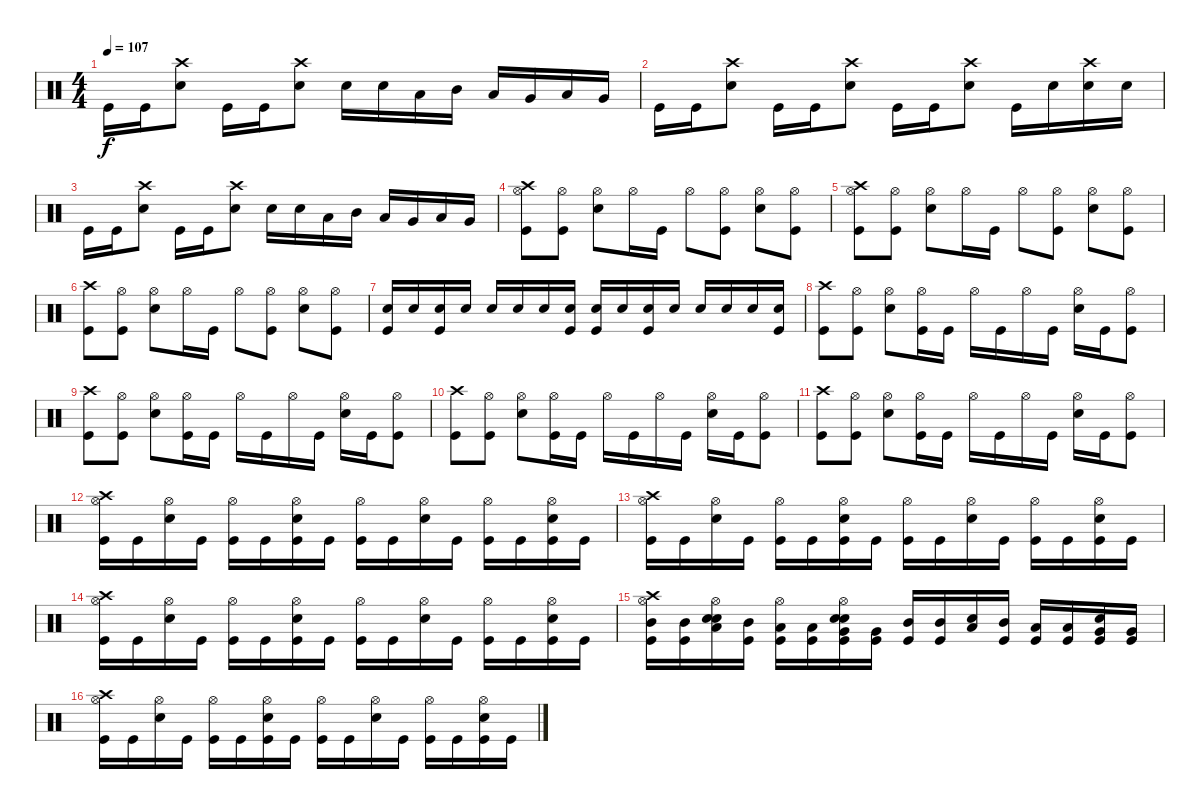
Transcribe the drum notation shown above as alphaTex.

\track "" {instrument percussion}
\staff {score}
\articulation defaults
\ts (4 4)
\tempo 107
\clef neutral
\ks c "Kick (hit)".16{dy f} "Kick (hit)".16
("Crash high (hit)" "Snare (hit) 2").8 "Kick (hit)".16 "Kick (hit)".16 ("Crash high (hit)" "Snare (hit) 2").8 "Snare (hit) 2".16 "Snare (hit) 2".16 "Low Tom (hit)".16 "Mid Tom (hit)".16 "Low Tom (hit)".16 "Very Low Tom (hit)".16 "Low Tom (hit)".16 "Very Low Tom (hit)".16 |
"Kick (hit)".16 "Kick (hit)".16 ("Crash high (hit)" "Snare (hit) 2").8 "Kick (hit)".16 "Kick (hit)".16 ("Crash high (hit)" "Snare (hit) 2").8 "Kick (hit)".16 "Kick (hit)".16 ("Crash high (hit)" "Snare (hit) 2").8 "Kick (hit)".16 "Snare (hit) 2".16 ("Crash high (hit)" "Snare (hit) 2").16 "Snare (hit) 2".16 |
"Kick (hit)".16 "Kick (hit)".16 ("Crash high (hit)" "Snare (hit) 2").8 "Kick (hit)".16 "Kick (hit)".16 ("Crash high (hit)" "Snare (hit) 2").8 "Snare (hit) 2".16 "Snare (hit) 2".16 "Low Tom (hit)".16 "Mid Tom (hit)".16 "Low Tom (hit)".16 "Very Low Tom (hit)".16 "Low Tom (hit)".16 "Very Low Tom (hit)".16 |
("Crash high (hit)" "Hi-Hat (open)" "Kick (hit)").8 ("Kick (hit)" "Hi-Hat (open)").8 ("Snare (hit) 2" "Hi-Hat (open)").8 "Hi-Hat (open)".16 "Kick (hit)".16 "Hi-Hat (open)".8 ("Kick (hit)" "Hi-Hat (open)").8 ("Snare (hit) 2" "Hi-Hat (open)").8 ("Kick (hit)" "Hi-Hat (open)").8 |
("Crash high (hit)" "Hi-Hat (open)" "Kick (hit)").8 ("Kick (hit)" "Hi-Hat (open)").8 ("Snare (hit) 2" "Hi-Hat (open)").8 "Hi-Hat (open)".16 "Kick (hit)".16 "Hi-Hat (open)".8 ("Kick (hit)" "Hi-Hat (open)").8 ("Snare (hit) 2" "Hi-Hat (open)").8 ("Kick (hit)" "Hi-Hat (open)").8 |
("Crash high (hit)" "Kick (hit)").8 ("Kick (hit)" "Hi-Hat (open)").8 ("Snare (hit) 2" "Hi-Hat (open)").8 "Hi-Hat (open)".16 "Kick (hit)".16 "Hi-Hat (open)".8 ("Kick (hit)" "Hi-Hat (open)").8 ("Snare (hit) 2" "Hi-Hat (open)").8 ("Kick (hit)" "Hi-Hat (open)").8 |
("Snare (hit) 2" "Kick (hit)").16 "Snare (hit) 2".16 ("Snare (hit) 2" "Kick (hit)").16 "Snare (hit) 2".16 "Snare (hit) 2".16 "Snare (hit) 2".16 "Snare (hit) 2".16 ("Snare (hit) 2" "Kick (hit)").16 ("Snare (hit) 2" "Kick (hit)").16 "Snare (hit) 2".16 ("Snare (hit) 2" "Kick (hit)").16 "Snare (hit) 2".16 "Snare (hit) 2".16 "Snare (hit) 2".16 "Snare (hit) 2".16 ("Snare (hit) 2" "Kick (hit)").16 |
("Crash high (hit)" "Kick (hit)").8 ("Kick (hit)" "Hi-Hat (open)").8 ("Snare (hit) 2" "Hi-Hat (open)").8 ("Kick (hit)" "Hi-Hat (open)").16 "Kick (hit)".16 "Hi-Hat (open)".16 "Kick (hit)".16 "Hi-Hat (open)".16 "Kick (hit)".16 ("Snare (hit) 2" "Hi-Hat (open)").16 "Kick (hit)".16 ("Kick (hit)" "Hi-Hat (open)").8 |
("Crash high (hit)" "Kick (hit)").8 ("Kick (hit)" "Hi-Hat (open)").8 ("Snare (hit) 2" "Hi-Hat (open)").8 ("Kick (hit)" "Hi-Hat (open)").16 "Kick (hit)".16 "Hi-Hat (open)".16 "Kick (hit)".16 "Hi-Hat (open)".16 "Kick (hit)".16 ("Snare (hit) 2" "Hi-Hat (open)").16 "Kick (hit)".16 ("Kick (hit)" "Hi-Hat (open)").8 |
("Crash high (hit)" "Kick (hit)").8 ("Kick (hit)" "Hi-Hat (open)").8 ("Snare (hit) 2" "Hi-Hat (open)").8 ("Kick (hit)" "Hi-Hat (open)").16 "Kick (hit)".16 "Hi-Hat (open)".16 "Kick (hit)".16 "Hi-Hat (open)".16 "Kick (hit)".16 ("Snare (hit) 2" "Hi-Hat (open)").16 "Kick (hit)".16 ("Kick (hit)" "Hi-Hat (open)").8 |
("Crash high (hit)" "Kick (hit)").8 ("Kick (hit)" "Hi-Hat (open)").8 ("Snare (hit) 2" "Hi-Hat (open)").8 ("Kick (hit)" "Hi-Hat (open)").16 "Kick (hit)".16 "Hi-Hat (open)".16 "Kick (hit)".16 "Hi-Hat (open)".16 "Kick (hit)".16 ("Snare (hit) 2" "Hi-Hat (open)").16 "Kick (hit)".16 ("Kick (hit)" "Hi-Hat (open)").8 |
("Hi-Hat (open)" "Crash high (hit)" "Kick (hit)").16 "Kick (hit)".16 ("Hi-Hat (open)" "Snare (hit) 2").16 "Kick (hit)".16 ("Hi-Hat (open)" "Kick (hit)").16 "Kick (hit)".16 ("Hi-Hat (open)" "Snare (hit) 2" "Kick (hit)").16 "Kick (hit)".16 ("Hi-Hat (open)" "Kick (hit)").16 "Kick (hit)".16 ("Hi-Hat (open)" "Snare (hit) 2").16 "Kick (hit)".16 ("Hi-Hat (open)" "Kick (hit)").16 "Kick (hit)".16 ("Hi-Hat (open)" "Snare (hit) 2" "Kick (hit)").16 "Kick (hit)".16 |
("Hi-Hat (open)" "Crash high (hit)" "Kick (hit)").16 "Kick (hit)".16 ("Hi-Hat (open)" "Snare (hit) 2").16 "Kick (hit)".16 ("Hi-Hat (open)" "Kick (hit)").16 "Kick (hit)".16 ("Hi-Hat (open)" "Snare (hit) 2" "Kick (hit)").16 "Kick (hit)".16 ("Hi-Hat (open)" "Kick (hit)").16 "Kick (hit)".16 ("Hi-Hat (open)" "Snare (hit) 2").16 "Kick (hit)".16 ("Hi-Hat (open)" "Kick (hit)").16 "Kick (hit)".16 ("Hi-Hat (open)" "Snare (hit) 2" "Kick (hit)").16 "Kick (hit)".16 |
("Hi-Hat (open)" "Crash high (hit)" "Kick (hit)").16 "Kick (hit)".16 ("Hi-Hat (open)" "Snare (hit) 2").16 "Kick (hit)".16 ("Hi-Hat (open)" "Kick (hit)").16 "Kick (hit)".16 ("Hi-Hat (open)" "Snare (hit) 2" "Kick (hit)").16 "Kick (hit)".16 ("Hi-Hat (open)" "Kick (hit)").16 "Kick (hit)".16 ("Hi-Hat (open)" "Snare (hit) 2").16 "Kick (hit)".16 ("Hi-Hat (open)" "Kick (hit)").16 "Kick (hit)".16 ("Hi-Hat (open)" "Snare (hit) 2" "Kick (hit)").16 "Kick (hit)".16 |
("Mid Tom (hit)" "Hi-Hat (open)" "Crash high (hit)" "Kick (hit)").16 ("Mid Tom (hit)" "Kick (hit)").16 ("Low Tom (hit)" "Snare (hit) 2" "Hi-Hat (open)" "Snare (hit) 2").16 ("Mid Tom (hit)" "Kick (hit)").16 ("Low Tom (hit)" "Hi-Hat (open)" "Kick (hit)").16 ("Low Tom (hit)" "Kick (hit)").16 ("Very Low Tom (hit)" "Snare (hit) 2" "Hi-Hat (open)" "Snare (hit) 2" "Kick (hit)").16 ("Very Low Tom (hit)" "Kick (hit)").16 ("Mid Tom (hit)" "Kick (hit)").16 ("Mid Tom (hit)" "Kick (hit)").16 ("Low Tom (hit)" "Snare (hit) 2").16 ("Mid Tom (hit)" "Kick (hit)").16 ("Low Tom (hit)" "Kick (hit)").16 ("Low Tom (hit)" "Kick (hit)").16 ("Very Low Tom (hit)" "Snare (hit) 2" "Kick (hit)").16 ("Very Low Tom (hit)" "Kick (hit)").16 |
("Hi-Hat (open)" "Crash high (hit)" "Kick (hit)").16 "Kick (hit)".16 ("Hi-Hat (open)" "Snare (hit) 2").16 "Kick (hit)".16 ("Hi-Hat (open)" "Kick (hit)").16 "Kick (hit)".16 ("Hi-Hat (open)" "Snare (hit) 2" "Kick (hit)").16 "Kick (hit)".16 ("Hi-Hat (open)" "Kick (hit)").16 "Kick (hit)".16 ("Hi-Hat (open)" "Snare (hit) 2").16 "Kick (hit)".16 ("Hi-Hat (open)" "Kick (hit)").16 "Kick (hit)".16 ("Hi-Hat (open)" "Snare (hit) 2" "Kick (hit)").16 "Kick (hit)".16
